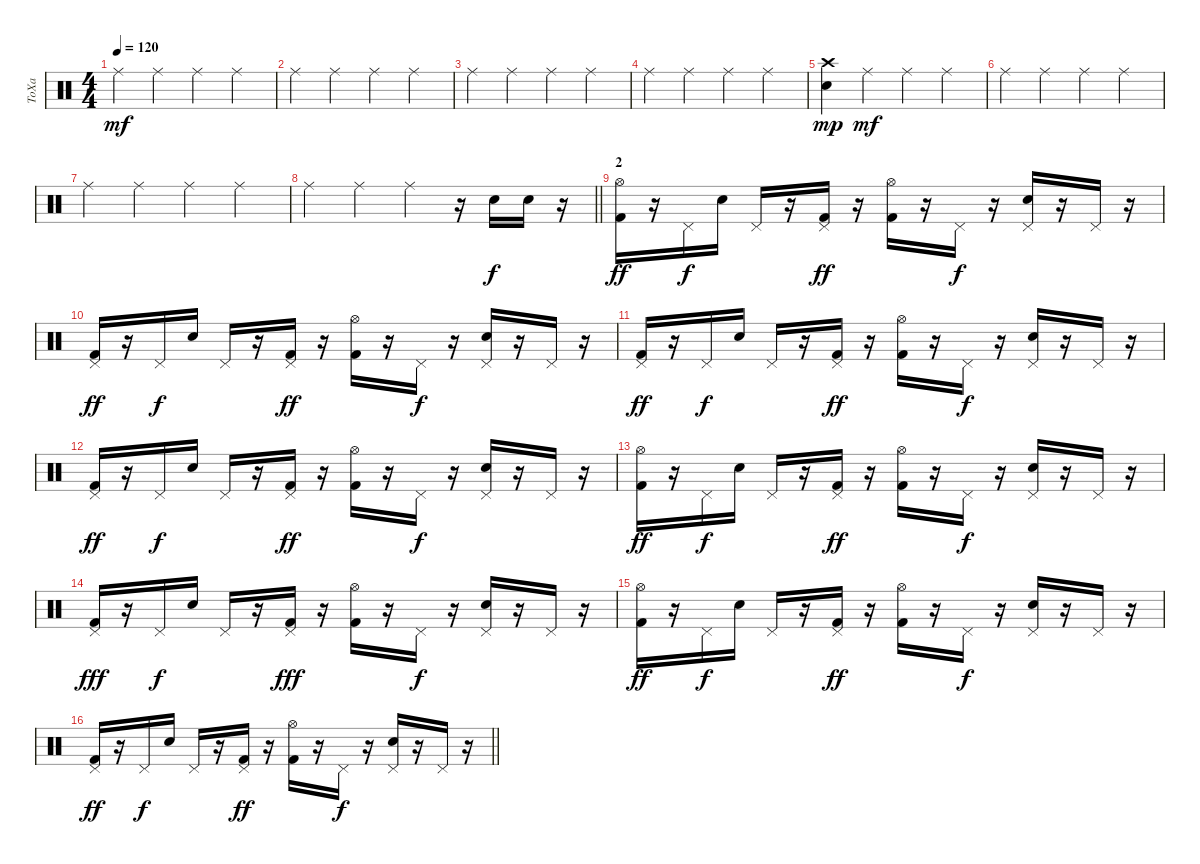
\track ("ТоХа" "ТоХа") {instrument percussion}
\staff {score}
\articulation defaults
\ts (4 4)
\tempo 120
\clef neutral
\ks c "Ride (middle)".4{dy mf} "Ride (middle)".4 "Ride (middle)".4 "Ride (middle)".4
|
"Ride (middle)".4 "Ride (middle)".4 "Ride (middle)".4 "Ride (middle)".4 |
"Ride (middle)".4 "Ride (middle)".4 "Ride (middle)".4 "Ride (middle)".4 |
"Ride (middle)".4 "Ride (middle)".4 "Ride (middle)".4 "Ride (middle)".4 |
("Electric Snare (hit)" "Crash high (hit)").4{dy mp} "Ride (middle)".4{dy mf} "Ride (middle)".4 "Ride (middle)".4 |
"Ride (middle)".4 "Ride (middle)".4 "Ride (middle)".4 "Ride (middle)".4 |
"Ride (middle)".4 "Ride (middle)".4 "Ride (middle)".4 "Ride (middle)".4 |
\barLineRight lightlight "Ride (middle)".4 "Ride (middle)".4 "Ride (middle)".4
r.16 "Electric Snare (hit)".16{dy f} "Electric Snare (hit)".16 r.16 |
\section ("" "2")
("Hi-Hat (open)" "Kick (hit) 2").16{dy ff} r.16 "Pedal Hi-Hat (hit)".16{dy f} "Electric Snare (hit)".16 "Pedal Hi-Hat (hit)".16 r.16 ("Pedal Hi-Hat (hit)" "Kick (hit) 2").16{dy ff} r.16 ("Hi-Hat (open)" "Kick (hit) 2").16 r.16 "Pedal Hi-Hat (hit)".16{dy f} r.16 ("Pedal Hi-Hat (hit)" "Electric Snare (hit)").16 r.16 "Pedal Hi-Hat (hit)".16 r.16 |
("Pedal Hi-Hat (hit)" "Kick (hit) 2").16{dy ff} r.16 "Pedal Hi-Hat (hit)".16{dy f} "Electric Snare (hit)".16 "Pedal Hi-Hat (hit)".16 r.16 ("Pedal Hi-Hat (hit)" "Kick (hit) 2").16{dy ff} r.16 ("Hi-Hat (open)" "Kick (hit) 2").16 r.16 "Pedal Hi-Hat (hit)".16{dy f} r.16 ("Pedal Hi-Hat (hit)" "Electric Snare (hit)").16 r.16 "Pedal Hi-Hat (hit)".16 r.16 |
("Pedal Hi-Hat (hit)" "Kick (hit) 2").16{dy ff} r.16 "Pedal Hi-Hat (hit)".16{dy f} "Electric Snare (hit)".16 "Pedal Hi-Hat (hit)".16 r.16 ("Pedal Hi-Hat (hit)" "Kick (hit) 2").16{dy ff} r.16 ("Hi-Hat (open)" "Kick (hit) 2").16 r.16 "Pedal Hi-Hat (hit)".16{dy f} r.16 ("Pedal Hi-Hat (hit)" "Electric Snare (hit)").16 r.16 "Pedal Hi-Hat (hit)".16 r.16 |
("Pedal Hi-Hat (hit)" "Kick (hit) 2").16{dy ff} r.16 "Pedal Hi-Hat (hit)".16{dy f} "Electric Snare (hit)".16 "Pedal Hi-Hat (hit)".16 r.16 ("Pedal Hi-Hat (hit)" "Kick (hit) 2").16{dy ff} r.16 ("Hi-Hat (open)" "Kick (hit) 2").16 r.16 "Pedal Hi-Hat (hit)".16{dy f} r.16 ("Pedal Hi-Hat (hit)" "Electric Snare (hit)").16 r.16 "Pedal Hi-Hat (hit)".16 r.16 |
("Hi-Hat (open)" "Kick (hit) 2").16{dy ff} r.16 "Pedal Hi-Hat (hit)".16{dy f} "Electric Snare (hit)".16 "Pedal Hi-Hat (hit)".16 r.16 ("Pedal Hi-Hat (hit)" "Kick (hit) 2").16{dy ff} r.16 ("Hi-Hat (open)" "Kick (hit) 2").16 r.16 "Pedal Hi-Hat (hit)".16{dy f} r.16 ("Pedal Hi-Hat (hit)" "Electric Snare (hit)").16 r.16 "Pedal Hi-Hat (hit)".16 r.16 |
("Pedal Hi-Hat (hit)" "Kick (hit) 2").16{dy fff} r.16 "Pedal Hi-Hat (hit)".16{dy f} "Electric Snare (hit)".16 "Pedal Hi-Hat (hit)".16 r.16 ("Pedal Hi-Hat (hit)" "Kick (hit) 2").16{dy fff} r.16 ("Hi-Hat (open)" "Kick (hit) 2").16 r.16 "Pedal Hi-Hat (hit)".16{dy f} r.16 ("Pedal Hi-Hat (hit)" "Electric Snare (hit)").16 r.16 "Pedal Hi-Hat (hit)".16 r.16 |
("Hi-Hat (open)" "Kick (hit) 2").16{dy ff} r.16 "Pedal Hi-Hat (hit)".16{dy f} "Electric Snare (hit)".16 "Pedal Hi-Hat (hit)".16 r.16 ("Pedal Hi-Hat (hit)" "Kick (hit) 2").16{dy ff} r.16 ("Hi-Hat (open)" "Kick (hit) 2").16 r.16 "Pedal Hi-Hat (hit)".16{dy f} r.16 ("Pedal Hi-Hat (hit)" "Electric Snare (hit)").16 r.16 "Pedal Hi-Hat (hit)".16 r.16 |
\barLineRight lightlight
("Pedal Hi-Hat (hit)" "Kick (hit) 2").16{dy ff} r.16 "Pedal Hi-Hat (hit)".16{dy f} "Electric Snare (hit)".16 "Pedal Hi-Hat (hit)".16 r.16 ("Pedal Hi-Hat (hit)" "Kick (hit) 2").16{dy ff} r.16 ("Hi-Hat (open)" "Kick (hit) 2").16 r.16 "Pedal Hi-Hat (hit)".16{dy f} r.16 ("Pedal Hi-Hat (hit)" "Electric Snare (hit)").16 r.16 "Pedal Hi-Hat (hit)".16 r.16
